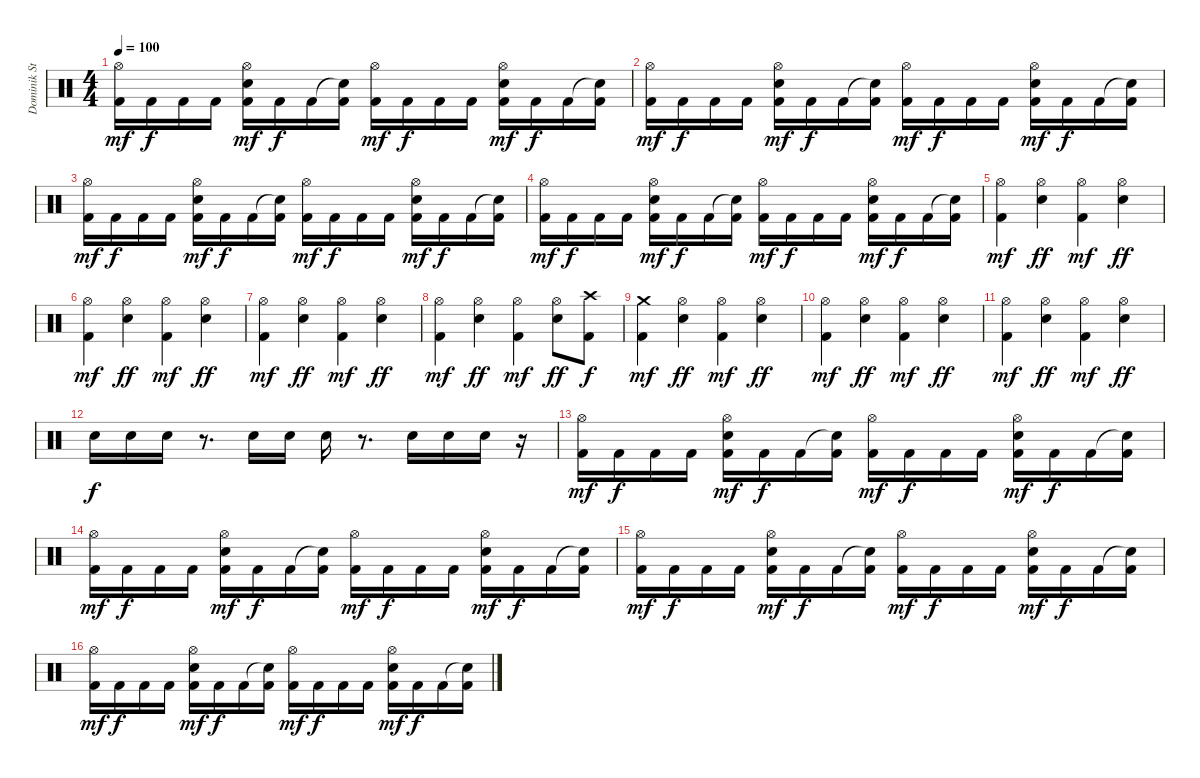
\track ("Dominik Storch" "Dominik St") {instrument percussion}
\staff {score}
\articulation defaults
\ts (4 4)
\tempo 100
\clef neutral
\ks c
("Hi-Hat (open)" "Kick (hit) 2").16{dy mf} "Kick (hit) 2".16{dy f} "Kick (hit) 2".16 "Kick (hit) 2".16 ("Hi-Hat (open)" "Electric Snare (hit)" "Kick (hit) 2").16{dy mf} "Kick (hit) 2".16{dy f} "Kick (hit) 2".16 ("Snare (hit)"{t} "Kick (hit) 2").16 ("Hi-Hat (open)" "Kick (hit) 2").16{dy mf} "Kick (hit) 2".16{dy f} "Kick (hit) 2".16 "Kick (hit) 2".16 ("Hi-Hat (open)" "Electric Snare (hit)" "Kick (hit) 2").16{dy mf} "Kick (hit) 2".16{dy f} "Kick (hit) 2".16 ("Snare (hit)"{t} "Kick (hit) 2").16 |
("Hi-Hat (open)" "Kick (hit) 2").16{dy mf} "Kick (hit) 2".16{dy f} "Kick (hit) 2".16 "Kick (hit) 2".16 ("Hi-Hat (open)" "Electric Snare (hit)" "Kick (hit) 2").16{dy mf} "Kick (hit) 2".16{dy f} "Kick (hit) 2".16 ("Snare (hit)"{t} "Kick (hit) 2").16 ("Hi-Hat (open)" "Kick (hit) 2").16{dy mf} "Kick (hit) 2".16{dy f} "Kick (hit) 2".16 "Kick (hit) 2".16 ("Hi-Hat (open)" "Electric Snare (hit)" "Kick (hit) 2").16{dy mf} "Kick (hit) 2".16{dy f} "Kick (hit) 2".16 ("Snare (hit)"{t} "Kick (hit) 2").16 |
("Hi-Hat (open)" "Kick (hit) 2").16{dy mf} "Kick (hit) 2".16{dy f} "Kick (hit) 2".16 "Kick (hit) 2".16 ("Hi-Hat (open)" "Electric Snare (hit)" "Kick (hit) 2").16{dy mf} "Kick (hit) 2".16{dy f} "Kick (hit) 2".16 ("Snare (hit)"{t} "Kick (hit) 2").16 ("Hi-Hat (open)" "Kick (hit) 2").16{dy mf} "Kick (hit) 2".16{dy f} "Kick (hit) 2".16 "Kick (hit) 2".16 ("Hi-Hat (open)" "Electric Snare (hit)" "Kick (hit) 2").16{dy mf} "Kick (hit) 2".16{dy f} "Kick (hit) 2".16 ("Snare (hit)"{t} "Kick (hit) 2").16 |
("Hi-Hat (open)" "Kick (hit) 2").16{dy mf} "Kick (hit) 2".16{dy f} "Kick (hit) 2".16 "Kick (hit) 2".16 ("Hi-Hat (open)" "Electric Snare (hit)" "Kick (hit) 2").16{dy mf} "Kick (hit) 2".16{dy f} "Kick (hit) 2".16 ("Snare (hit)"{t} "Kick (hit) 2").16 ("Hi-Hat (open)" "Kick (hit) 2").16{dy mf} "Kick (hit) 2".16{dy f} "Kick (hit) 2".16 "Kick (hit) 2".16 ("Hi-Hat (open)" "Electric Snare (hit)" "Kick (hit) 2").16{dy mf} "Kick (hit) 2".16{dy f} "Kick (hit) 2".16 ("Snare (hit)"{t} "Kick (hit) 2").16 |
("Hi-Hat (open)" "Kick (hit) 2").4{dy mf} ("Hi-Hat (open)" "Electric Snare (hit)").4{dy ff} ("Hi-Hat (open)" "Kick (hit) 2").4{dy mf} ("Hi-Hat (open)" "Electric Snare (hit)").4{dy ff} |
("Hi-Hat (open)" "Kick (hit) 2").4{dy mf} ("Hi-Hat (open)" "Electric Snare (hit)").4{dy ff} ("Hi-Hat (open)" "Kick (hit) 2").4{dy mf} ("Hi-Hat (open)" "Electric Snare (hit)").4{dy ff} |
("Hi-Hat (open)" "Kick (hit) 2").4{dy mf} ("Hi-Hat (open)" "Electric Snare (hit)").4{dy ff} ("Hi-Hat (open)" "Kick (hit) 2").4{dy mf} ("Hi-Hat (open)" "Electric Snare (hit)").4{dy ff} |
("Hi-Hat (open)" "Kick (hit) 2").4{dy mf} ("Hi-Hat (open)" "Electric Snare (hit)").4{dy ff} ("Hi-Hat (open)" "Kick (hit) 2").4{dy mf} ("Hi-Hat (open)" "Electric Snare (hit)").8{dy ff} ("Crash high (hit)" "Kick (hit) 2").8{dy f} |
("Crash medium (hit)" "Kick (hit) 2").4{dy mf} ("Hi-Hat (open)" "Electric Snare (hit)").4{dy ff} ("Hi-Hat (open)" "Kick (hit) 2").4{dy mf} ("Hi-Hat (open)" "Electric Snare (hit)").4{dy ff} |
("Hi-Hat (open)" "Kick (hit) 2").4{dy mf} ("Hi-Hat (open)" "Electric Snare (hit)").4{dy ff} ("Hi-Hat (open)" "Kick (hit) 2").4{dy mf} ("Hi-Hat (open)" "Electric Snare (hit)").4{dy ff} |
("Hi-Hat (open)" "Kick (hit) 2").4{dy mf} ("Hi-Hat (open)" "Electric Snare (hit)").4{dy ff} ("Hi-Hat (open)" "Kick (hit) 2").4{dy mf} ("Hi-Hat (open)" "Electric Snare (hit)").4{dy ff} |
"Electric Snare (hit)".16{dy f} "Electric Snare (hit)".16 "Electric Snare (hit)".16 r.8{d} "Electric Snare (hit)".16 "Electric Snare (hit)".16 "Electric Snare (hit)".16 r.8{d} "Electric Snare (hit)".16 "Electric Snare (hit)".16 "Electric Snare (hit)".16 r.16 |
("Hi-Hat (open)" "Kick (hit) 2").16{dy mf} "Kick (hit) 2".16{dy f} "Kick (hit) 2".16 "Kick (hit) 2".16 ("Hi-Hat (open)" "Electric Snare (hit)" "Kick (hit) 2").16{dy mf} "Kick (hit) 2".16{dy f} "Kick (hit) 2".16 ("Snare (hit)"{t} "Kick (hit) 2").16 ("Hi-Hat (open)" "Kick (hit) 2").16{dy mf} "Kick (hit) 2".16{dy f} "Kick (hit) 2".16 "Kick (hit) 2".16 ("Hi-Hat (open)" "Electric Snare (hit)" "Kick (hit) 2").16{dy mf} "Kick (hit) 2".16{dy f} "Kick (hit) 2".16 ("Snare (hit)"{t} "Kick (hit) 2").16 |
("Hi-Hat (open)" "Kick (hit) 2").16{dy mf} "Kick (hit) 2".16{dy f} "Kick (hit) 2".16 "Kick (hit) 2".16 ("Hi-Hat (open)" "Electric Snare (hit)" "Kick (hit) 2").16{dy mf} "Kick (hit) 2".16{dy f} "Kick (hit) 2".16 ("Snare (hit)"{t} "Kick (hit) 2").16 ("Hi-Hat (open)" "Kick (hit) 2").16{dy mf} "Kick (hit) 2".16{dy f} "Kick (hit) 2".16 "Kick (hit) 2".16 ("Hi-Hat (open)" "Electric Snare (hit)" "Kick (hit) 2").16{dy mf} "Kick (hit) 2".16{dy f} "Kick (hit) 2".16 ("Snare (hit)"{t} "Kick (hit) 2").16 |
("Hi-Hat (open)" "Kick (hit) 2").16{dy mf} "Kick (hit) 2".16{dy f} "Kick (hit) 2".16 "Kick (hit) 2".16 ("Hi-Hat (open)" "Electric Snare (hit)" "Kick (hit) 2").16{dy mf} "Kick (hit) 2".16{dy f} "Kick (hit) 2".16 ("Snare (hit)"{t} "Kick (hit) 2").16 ("Hi-Hat (open)" "Kick (hit) 2").16{dy mf} "Kick (hit) 2".16{dy f} "Kick (hit) 2".16 "Kick (hit) 2".16 ("Hi-Hat (open)" "Electric Snare (hit)" "Kick (hit) 2").16{dy mf} "Kick (hit) 2".16{dy f} "Kick (hit) 2".16 ("Snare (hit)"{t} "Kick (hit) 2").16 |
("Hi-Hat (open)" "Kick (hit) 2").16{dy mf} "Kick (hit) 2".16{dy f} "Kick (hit) 2".16 "Kick (hit) 2".16 ("Hi-Hat (open)" "Electric Snare (hit)" "Kick (hit) 2").16{dy mf} "Kick (hit) 2".16{dy f} "Kick (hit) 2".16 ("Snare (hit)"{t} "Kick (hit) 2").16 ("Hi-Hat (open)" "Kick (hit) 2").16{dy mf} "Kick (hit) 2".16{dy f} "Kick (hit) 2".16 "Kick (hit) 2".16 ("Hi-Hat (open)" "Electric Snare (hit)" "Kick (hit) 2").16{dy mf} "Kick (hit) 2".16{dy f} "Kick (hit) 2".16 ("Snare (hit)"{t} "Kick (hit) 2").16
